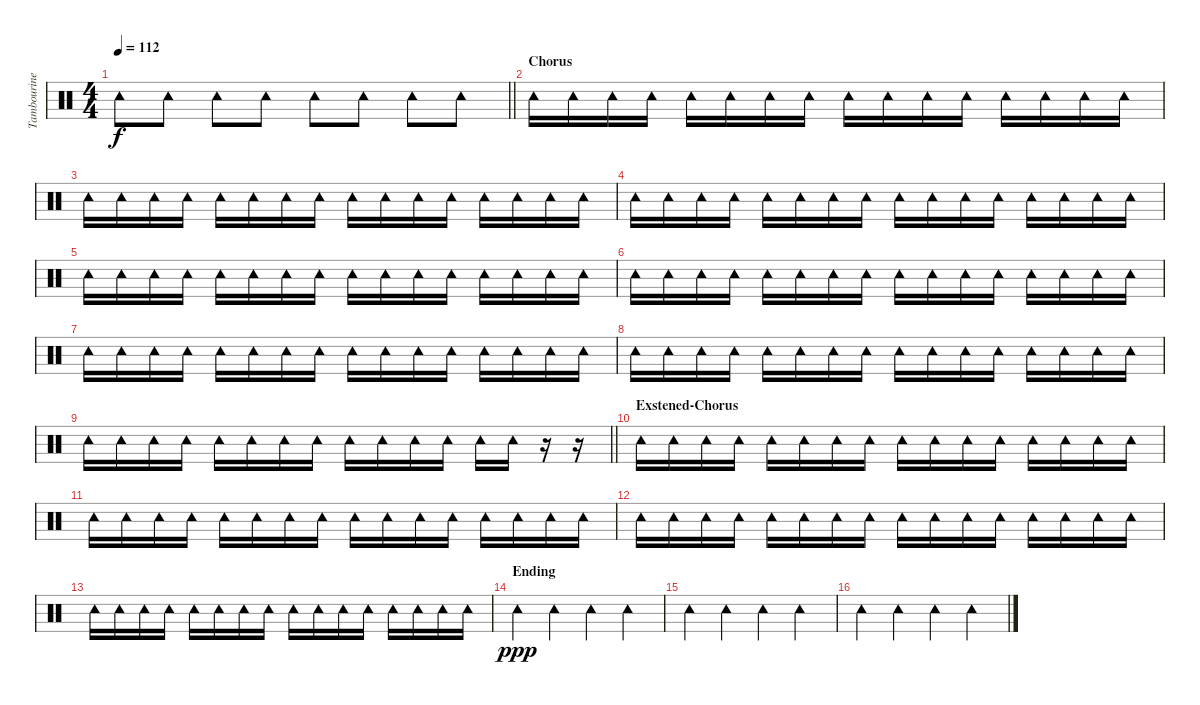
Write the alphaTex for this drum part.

\track ("Tambourine" "Tambourine") {instrument percussion}
\staff {score}
\articulation defaults
\ts (4 4)
\tempo 112
\clef neutral
\barLineRight lightlight
\ks c "Tambourine (hit)".8{dy f} "Tambourine (hit)".8 "Tambourine (hit)".8 "Tambourine (hit)".8 "Tambourine (hit)".8 "Tambourine (hit)".8 "Tambourine (hit)".8 "Tambourine (hit)".8
|
\section ("" "Chorus")
"Tambourine (hit)".16 "Tambourine (hit)".16 "Tambourine (hit)".16 "Tambourine (hit)".16 "Tambourine (hit)".16 "Tambourine (hit)".16 "Tambourine (hit)".16 "Tambourine (hit)".16 "Tambourine (hit)".16 "Tambourine (hit)".16 "Tambourine (hit)".16 "Tambourine (hit)".16 "Tambourine (hit)".16 "Tambourine (hit)".16 "Tambourine (hit)".16 "Tambourine (hit)".16 |
"Tambourine (hit)".16 "Tambourine (hit)".16 "Tambourine (hit)".16 "Tambourine (hit)".16 "Tambourine (hit)".16 "Tambourine (hit)".16 "Tambourine (hit)".16 "Tambourine (hit)".16 "Tambourine (hit)".16 "Tambourine (hit)".16 "Tambourine (hit)".16 "Tambourine (hit)".16 "Tambourine (hit)".16 "Tambourine (hit)".16 "Tambourine (hit)".16 "Tambourine (hit)".16 |
"Tambourine (hit)".16 "Tambourine (hit)".16 "Tambourine (hit)".16 "Tambourine (hit)".16 "Tambourine (hit)".16 "Tambourine (hit)".16 "Tambourine (hit)".16 "Tambourine (hit)".16 "Tambourine (hit)".16 "Tambourine (hit)".16 "Tambourine (hit)".16 "Tambourine (hit)".16 "Tambourine (hit)".16 "Tambourine (hit)".16 "Tambourine (hit)".16 "Tambourine (hit)".16 |
"Tambourine (hit)".16 "Tambourine (hit)".16 "Tambourine (hit)".16 "Tambourine (hit)".16 "Tambourine (hit)".16 "Tambourine (hit)".16 "Tambourine (hit)".16 "Tambourine (hit)".16 "Tambourine (hit)".16 "Tambourine (hit)".16 "Tambourine (hit)".16 "Tambourine (hit)".16 "Tambourine (hit)".16 "Tambourine (hit)".16 "Tambourine (hit)".16 "Tambourine (hit)".16 |
"Tambourine (hit)".16 "Tambourine (hit)".16 "Tambourine (hit)".16 "Tambourine (hit)".16 "Tambourine (hit)".16 "Tambourine (hit)".16 "Tambourine (hit)".16 "Tambourine (hit)".16 "Tambourine (hit)".16 "Tambourine (hit)".16 "Tambourine (hit)".16 "Tambourine (hit)".16 "Tambourine (hit)".16 "Tambourine (hit)".16 "Tambourine (hit)".16 "Tambourine (hit)".16 |
"Tambourine (hit)".16 "Tambourine (hit)".16 "Tambourine (hit)".16 "Tambourine (hit)".16 "Tambourine (hit)".16 "Tambourine (hit)".16 "Tambourine (hit)".16 "Tambourine (hit)".16 "Tambourine (hit)".16 "Tambourine (hit)".16 "Tambourine (hit)".16 "Tambourine (hit)".16 "Tambourine (hit)".16 "Tambourine (hit)".16 "Tambourine (hit)".16 "Tambourine (hit)".16 |
"Tambourine (hit)".16 "Tambourine (hit)".16 "Tambourine (hit)".16 "Tambourine (hit)".16 "Tambourine (hit)".16 "Tambourine (hit)".16 "Tambourine (hit)".16 "Tambourine (hit)".16 "Tambourine (hit)".16 "Tambourine (hit)".16 "Tambourine (hit)".16 "Tambourine (hit)".16 "Tambourine (hit)".16 "Tambourine (hit)".16 "Tambourine (hit)".16 "Tambourine (hit)".16 |
\barLineRight lightlight "Tambourine (hit)".16 "Tambourine (hit)".16 "Tambourine (hit)".16 "Tambourine (hit)".16 "Tambourine (hit)".16 "Tambourine (hit)".16 "Tambourine (hit)".16 "Tambourine (hit)".16 "Tambourine (hit)".16 "Tambourine (hit)".16 "Tambourine (hit)".16 "Tambourine (hit)".16 "Tambourine (hit)".16 "Tambourine (hit)".16
r.16 r.16 |
\section ("" "Exstened-Chorus")
"Tambourine (hit)".16 "Tambourine (hit)".16 "Tambourine (hit)".16 "Tambourine (hit)".16 "Tambourine (hit)".16 "Tambourine (hit)".16 "Tambourine (hit)".16 "Tambourine (hit)".16 "Tambourine (hit)".16 "Tambourine (hit)".16 "Tambourine (hit)".16 "Tambourine (hit)".16 "Tambourine (hit)".16 "Tambourine (hit)".16 "Tambourine (hit)".16 "Tambourine (hit)".16 |
"Tambourine (hit)".16 "Tambourine (hit)".16 "Tambourine (hit)".16 "Tambourine (hit)".16 "Tambourine (hit)".16 "Tambourine (hit)".16 "Tambourine (hit)".16 "Tambourine (hit)".16 "Tambourine (hit)".16 "Tambourine (hit)".16 "Tambourine (hit)".16 "Tambourine (hit)".16 "Tambourine (hit)".16 "Tambourine (hit)".16 "Tambourine (hit)".16 "Tambourine (hit)".16 |
"Tambourine (hit)".16 "Tambourine (hit)".16 "Tambourine (hit)".16 "Tambourine (hit)".16 "Tambourine (hit)".16 "Tambourine (hit)".16 "Tambourine (hit)".16 "Tambourine (hit)".16 "Tambourine (hit)".16 "Tambourine (hit)".16 "Tambourine (hit)".16 "Tambourine (hit)".16 "Tambourine (hit)".16 "Tambourine (hit)".16 "Tambourine (hit)".16 "Tambourine (hit)".16 |
"Tambourine (hit)".16 "Tambourine (hit)".16 "Tambourine (hit)".16 "Tambourine (hit)".16 "Tambourine (hit)".16 "Tambourine (hit)".16 "Tambourine (hit)".16 "Tambourine (hit)".16 "Tambourine (hit)".16 "Tambourine (hit)".16 "Tambourine (hit)".16 "Tambourine (hit)".16 "Tambourine (hit)".16 "Tambourine (hit)".16 "Tambourine (hit)".16 "Tambourine (hit)".16 |
\section ("" "Ending")
"Tambourine (hit)".4{dy ppp} "Tambourine (hit)".4 "Tambourine (hit)".4 "Tambourine (hit)".4 |
"Tambourine (hit)".4 "Tambourine (hit)".4 "Tambourine (hit)".4 "Tambourine (hit)".4 |
"Tambourine (hit)".4 "Tambourine (hit)".4 "Tambourine (hit)".4 "Tambourine (hit)".4
